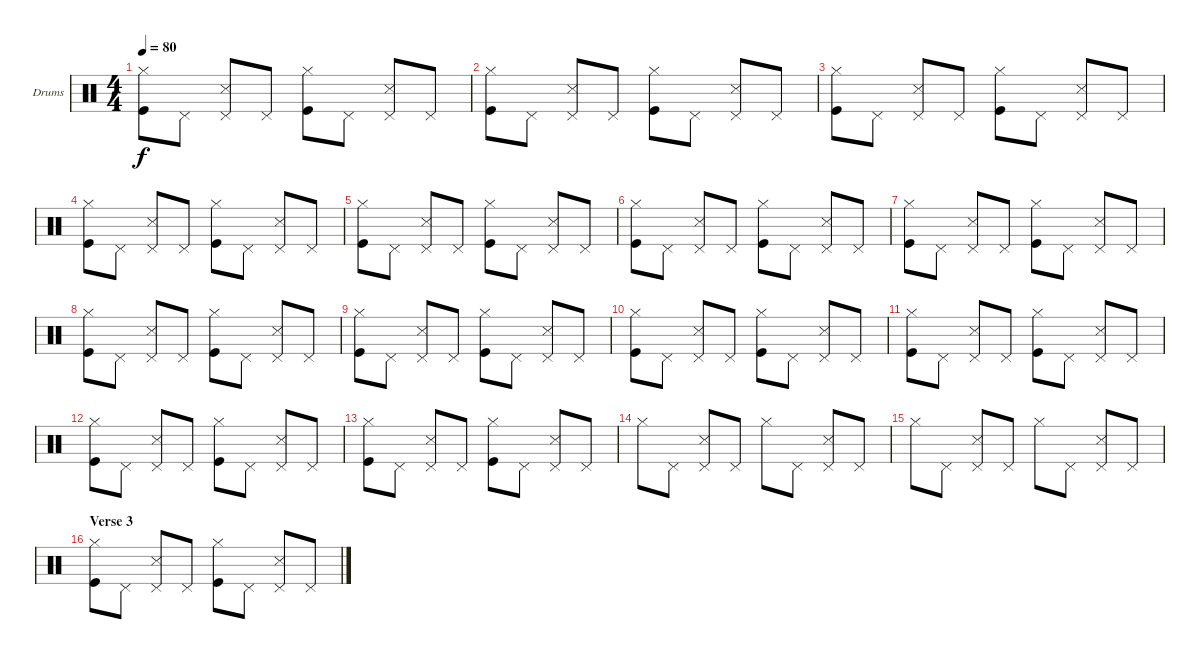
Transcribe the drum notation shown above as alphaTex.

\defaultSystemsLayout 4
\bracketExtendMode groupsimilarinstruments
\firstSystemTrackNameOrientation horizontal
\otherSystemsTrackNameOrientation horizontal
\track ("Drumkit" "Drums") {instrument percussion}
\staff {score}
\articulation defaults
\ts (4 4)
\tempo 80
\clef neutral
\ks c
("Hi-Hat (closed)" "Kick (hit)").8{dy f} "Pedal Hi-Hat (hit)".8 ("Pedal Hi-Hat (hit)" "Snare (side stick) 3").8 "Pedal Hi-Hat (hit)".8 ("Hi-Hat (closed)" "Kick (hit)").8 "Pedal Hi-Hat (hit)".8 ("Pedal Hi-Hat (hit)" "Snare (side stick) 3").8 "Pedal Hi-Hat (hit)".8 |
("Hi-Hat (closed)" "Kick (hit)").8 "Pedal Hi-Hat (hit)".8 ("Pedal Hi-Hat (hit)" "Snare (side stick) 3").8 "Pedal Hi-Hat (hit)".8 ("Hi-Hat (closed)" "Kick (hit)").8 "Pedal Hi-Hat (hit)".8 ("Pedal Hi-Hat (hit)" "Snare (side stick) 3").8 "Pedal Hi-Hat (hit)".8 |
("Hi-Hat (closed)" "Kick (hit)").8 "Pedal Hi-Hat (hit)".8 ("Pedal Hi-Hat (hit)" "Snare (side stick) 3").8 "Pedal Hi-Hat (hit)".8 ("Hi-Hat (closed)" "Kick (hit)").8 "Pedal Hi-Hat (hit)".8 ("Pedal Hi-Hat (hit)" "Snare (side stick) 3").8 "Pedal Hi-Hat (hit)".8 |
("Hi-Hat (closed)" "Kick (hit)").8 "Pedal Hi-Hat (hit)".8 ("Pedal Hi-Hat (hit)" "Snare (side stick) 3").8 "Pedal Hi-Hat (hit)".8 ("Hi-Hat (closed)" "Kick (hit)").8 "Pedal Hi-Hat (hit)".8 ("Pedal Hi-Hat (hit)" "Snare (side stick) 3").8 "Pedal Hi-Hat (hit)".8 |
("Hi-Hat (closed)" "Kick (hit)").8 "Pedal Hi-Hat (hit)".8 ("Pedal Hi-Hat (hit)" "Snare (side stick) 3").8 "Pedal Hi-Hat (hit)".8 ("Hi-Hat (closed)" "Kick (hit)").8 "Pedal Hi-Hat (hit)".8 ("Pedal Hi-Hat (hit)" "Snare (side stick) 3").8 "Pedal Hi-Hat (hit)".8 |
("Hi-Hat (closed)" "Kick (hit)").8 "Pedal Hi-Hat (hit)".8 ("Pedal Hi-Hat (hit)" "Snare (side stick) 3").8 "Pedal Hi-Hat (hit)".8 ("Hi-Hat (closed)" "Kick (hit)").8 "Pedal Hi-Hat (hit)".8 ("Pedal Hi-Hat (hit)" "Snare (side stick) 3").8 "Pedal Hi-Hat (hit)".8 |
("Hi-Hat (closed)" "Kick (hit)").8 "Pedal Hi-Hat (hit)".8 ("Pedal Hi-Hat (hit)" "Snare (side stick) 3").8 "Pedal Hi-Hat (hit)".8 ("Hi-Hat (closed)" "Kick (hit)").8 "Pedal Hi-Hat (hit)".8 ("Pedal Hi-Hat (hit)" "Snare (side stick) 3").8 "Pedal Hi-Hat (hit)".8 |
("Hi-Hat (closed)" "Kick (hit)").8 "Pedal Hi-Hat (hit)".8 ("Pedal Hi-Hat (hit)" "Snare (side stick) 3").8 "Pedal Hi-Hat (hit)".8 ("Hi-Hat (closed)" "Kick (hit)").8 "Pedal Hi-Hat (hit)".8 ("Pedal Hi-Hat (hit)" "Snare (side stick) 3").8 "Pedal Hi-Hat (hit)".8 |
("Hi-Hat (closed)" "Kick (hit)").8 "Pedal Hi-Hat (hit)".8 ("Pedal Hi-Hat (hit)" "Snare (side stick) 3").8 "Pedal Hi-Hat (hit)".8 ("Hi-Hat (closed)" "Kick (hit)").8 "Pedal Hi-Hat (hit)".8 ("Pedal Hi-Hat (hit)" "Snare (side stick) 3").8 "Pedal Hi-Hat (hit)".8 |
("Hi-Hat (closed)" "Kick (hit)").8 "Pedal Hi-Hat (hit)".8 ("Pedal Hi-Hat (hit)" "Snare (side stick) 3").8 "Pedal Hi-Hat (hit)".8 ("Hi-Hat (closed)" "Kick (hit)").8 "Pedal Hi-Hat (hit)".8 ("Pedal Hi-Hat (hit)" "Snare (side stick) 3").8 "Pedal Hi-Hat (hit)".8 |
("Hi-Hat (closed)" "Kick (hit)").8 "Pedal Hi-Hat (hit)".8 ("Pedal Hi-Hat (hit)" "Snare (side stick) 3").8 "Pedal Hi-Hat (hit)".8 ("Hi-Hat (closed)" "Kick (hit)").8 "Pedal Hi-Hat (hit)".8 ("Pedal Hi-Hat (hit)" "Snare (side stick) 3").8 "Pedal Hi-Hat (hit)".8 |
("Hi-Hat (closed)" "Kick (hit)").8 "Pedal Hi-Hat (hit)".8 ("Pedal Hi-Hat (hit)" "Snare (side stick) 3").8 "Pedal Hi-Hat (hit)".8 ("Hi-Hat (closed)" "Kick (hit)").8 "Pedal Hi-Hat (hit)".8 ("Pedal Hi-Hat (hit)" "Snare (side stick) 3").8 "Pedal Hi-Hat (hit)".8 |
("Hi-Hat (closed)" "Kick (hit)").8 "Pedal Hi-Hat (hit)".8 ("Pedal Hi-Hat (hit)" "Snare (side stick) 3").8 "Pedal Hi-Hat (hit)".8 ("Hi-Hat (closed)" "Kick (hit)").8 "Pedal Hi-Hat (hit)".8 ("Pedal Hi-Hat (hit)" "Snare (side stick) 3").8 "Pedal Hi-Hat (hit)".8 |
"Hi-Hat (closed)".8 "Pedal Hi-Hat (hit)".8 ("Pedal Hi-Hat (hit)" "Snare (side stick) 3").8 "Pedal Hi-Hat (hit)".8 "Hi-Hat (closed)".8 "Pedal Hi-Hat (hit)".8 ("Pedal Hi-Hat (hit)" "Snare (side stick) 3").8 "Pedal Hi-Hat (hit)".8 |
"Hi-Hat (closed)".8 "Pedal Hi-Hat (hit)".8 ("Pedal Hi-Hat (hit)" "Snare (side stick) 3").8 "Pedal Hi-Hat (hit)".8 "Hi-Hat (closed)".8 "Pedal Hi-Hat (hit)".8 ("Pedal Hi-Hat (hit)" "Snare (side stick) 3").8 "Pedal Hi-Hat (hit)".8 |
\section ("" "Verse 3")
("Hi-Hat (closed)" "Kick (hit)").8 "Pedal Hi-Hat (hit)".8 ("Pedal Hi-Hat (hit)" "Snare (side stick) 3").8 "Pedal Hi-Hat (hit)".8 ("Hi-Hat (closed)" "Kick (hit)").8 "Pedal Hi-Hat (hit)".8 ("Pedal Hi-Hat (hit)" "Snare (side stick) 3").8 "Pedal Hi-Hat (hit)".8
